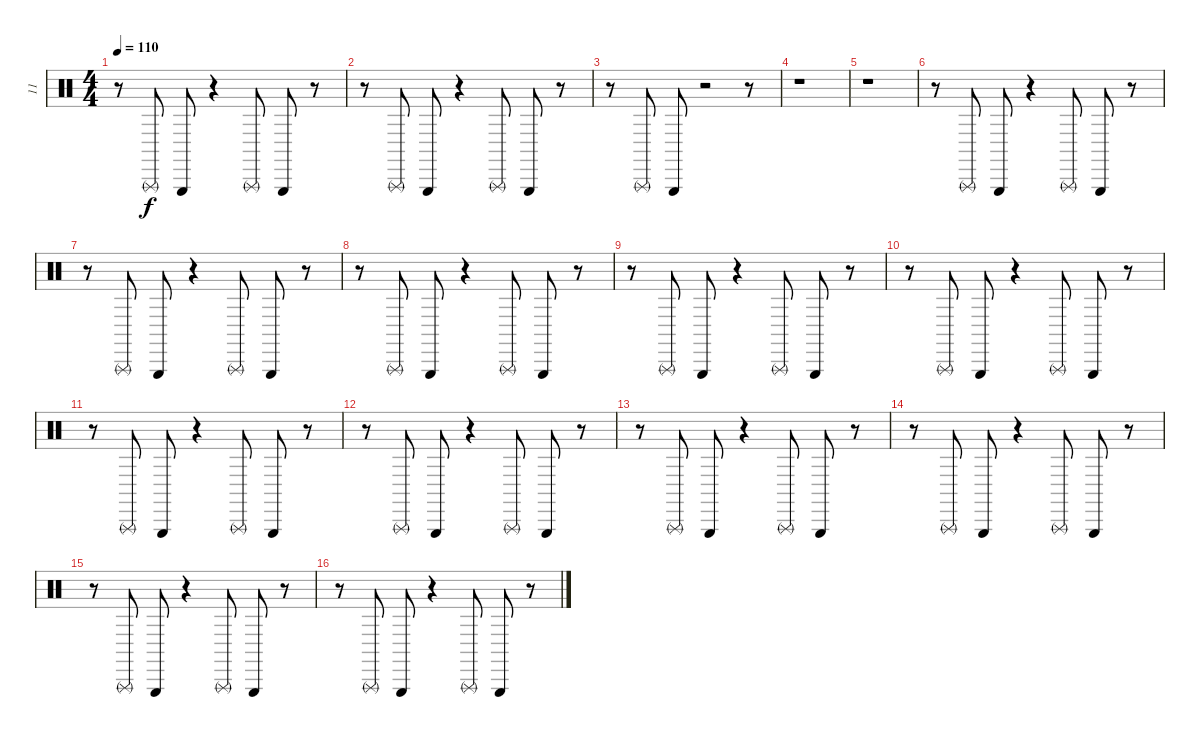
\track ("11" "11") {instrument percussion}
\staff {score}
\articulation defaults
\ts (4 4)
\tempo 110
\clef neutral
\ks c
r.8{dy f} "Triangle (rnute)".8 "Triangle (hit)".8 r.4 "Triangle (rnute)".8 "Triangle (hit)".8 r.8 |
r.8 "Triangle (rnute)".8 "Triangle (hit)".8 r.4 "Triangle (rnute)".8 "Triangle (hit)".8 r.8 |
r.8 "Triangle (rnute)".8 "Triangle (hit)".8 r.2 r.8 |
r.1 |
r.1 |
r.8 "Triangle (rnute)".8 "Triangle (hit)".8 r.4 "Triangle (rnute)".8 "Triangle (hit)".8 r.8 |
r.8 "Triangle (rnute)".8 "Triangle (hit)".8 r.4 "Triangle (rnute)".8 "Triangle (hit)".8 r.8 |
r.8 "Triangle (rnute)".8 "Triangle (hit)".8 r.4 "Triangle (rnute)".8 "Triangle (hit)".8 r.8 |
r.8 "Triangle (rnute)".8 "Triangle (hit)".8 r.4 "Triangle (rnute)".8 "Triangle (hit)".8 r.8 |
r.8 "Triangle (rnute)".8 "Triangle (hit)".8 r.4 "Triangle (rnute)".8 "Triangle (hit)".8 r.8 |
r.8 "Triangle (rnute)".8 "Triangle (hit)".8 r.4 "Triangle (rnute)".8 "Triangle (hit)".8 r.8 |
r.8 "Triangle (rnute)".8 "Triangle (hit)".8 r.4 "Triangle (rnute)".8 "Triangle (hit)".8 r.8 |
r.8 "Triangle (rnute)".8 "Triangle (hit)".8 r.4 "Triangle (rnute)".8 "Triangle (hit)".8 r.8 |
r.8 "Triangle (rnute)".8 "Triangle (hit)".8 r.4 "Triangle (rnute)".8 "Triangle (hit)".8 r.8 |
r.8 "Triangle (rnute)".8 "Triangle (hit)".8 r.4 "Triangle (rnute)".8 "Triangle (hit)".8 r.8 |
r.8 "Triangle (rnute)".8 "Triangle (hit)".8 r.4 "Triangle (rnute)".8 "Triangle (hit)".8 r.8
